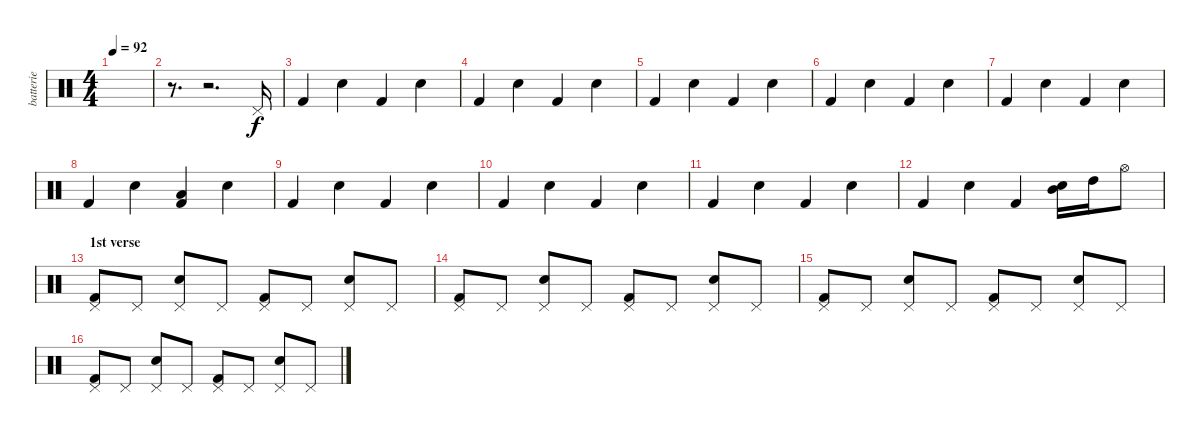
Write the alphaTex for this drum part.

\track ("batterie" "batterie") {instrument percussion}
\staff {score}
\articulation defaults
\ts (4 4)
\tempo 92
\clef neutral
\ks c
|
r.8{d} r.2{d} "Pedal Hi-Hat (hit)".16 |
"Kick (hit) 2".4 "Snare (hit) 2".4 "Kick (hit) 2".4 "Snare (hit) 2".4 |
"Kick (hit) 2".4 "Snare (hit) 2".4 "Kick (hit) 2".4 "Snare (hit) 2".4 |
"Kick (hit) 2".4 "Snare (hit) 2".4 "Kick (hit) 2".4 "Snare (hit) 2".4 |
"Kick (hit) 2".4 "Snare (hit) 2".4 "Kick (hit) 2".4 "Snare (hit) 2".4 |
"Kick (hit) 2".4 "Snare (hit) 2".4 "Kick (hit) 2".4 "Snare (hit) 2".4 |
"Kick (hit) 2".4 "Snare (hit) 2".4 ("Low Tom (hit)" "Kick (hit) 2").4 "Snare (hit) 2".4 |
"Kick (hit) 2".4 "Snare (hit) 2".4 "Kick (hit) 2".4 "Snare (hit) 2".4 |
"Kick (hit) 2".4 "Snare (hit) 2".4 "Kick (hit) 2".4 "Snare (hit) 2".4 |
"Kick (hit) 2".4 "Snare (hit) 2".4 "Kick (hit) 2".4 "Snare (hit) 2".4 |
"Kick (hit) 2".4 "Snare (hit) 2".4 "Kick (hit) 2".4 ("Mid Tom (hit)" "Snare (hit) 2").16 "High Tom (hit)".16 "Hi-Hat (open)".8 |
\section ("" "1st verse")
("Pedal Hi-Hat (hit)" "Kick (hit) 2").8 "Pedal Hi-Hat (hit)".8 ("Pedal Hi-Hat (hit)" "Snare (hit) 2").8 "Pedal Hi-Hat (hit)".8 ("Pedal Hi-Hat (hit)" "Kick (hit) 2").8 "Pedal Hi-Hat (hit)".8 ("Pedal Hi-Hat (hit)" "Snare (hit) 2").8 "Pedal Hi-Hat (hit)".8 |
("Pedal Hi-Hat (hit)" "Kick (hit) 2").8 "Pedal Hi-Hat (hit)".8 ("Pedal Hi-Hat (hit)" "Snare (hit) 2").8 "Pedal Hi-Hat (hit)".8 ("Pedal Hi-Hat (hit)" "Kick (hit) 2").8 "Pedal Hi-Hat (hit)".8 ("Pedal Hi-Hat (hit)" "Snare (hit) 2").8 "Pedal Hi-Hat (hit)".8 |
("Pedal Hi-Hat (hit)" "Kick (hit) 2").8 "Pedal Hi-Hat (hit)".8 ("Pedal Hi-Hat (hit)" "Snare (hit) 2").8 "Pedal Hi-Hat (hit)".8 ("Pedal Hi-Hat (hit)" "Kick (hit) 2").8 "Pedal Hi-Hat (hit)".8 ("Pedal Hi-Hat (hit)" "Snare (hit) 2").8 "Pedal Hi-Hat (hit)".8 |
("Pedal Hi-Hat (hit)" "Kick (hit) 2").8 "Pedal Hi-Hat (hit)".8 ("Pedal Hi-Hat (hit)" "Snare (hit) 2").8 "Pedal Hi-Hat (hit)".8 ("Pedal Hi-Hat (hit)" "Kick (hit) 2").8 "Pedal Hi-Hat (hit)".8 ("Pedal Hi-Hat (hit)" "Snare (hit) 2").8 "Pedal Hi-Hat (hit)".8
